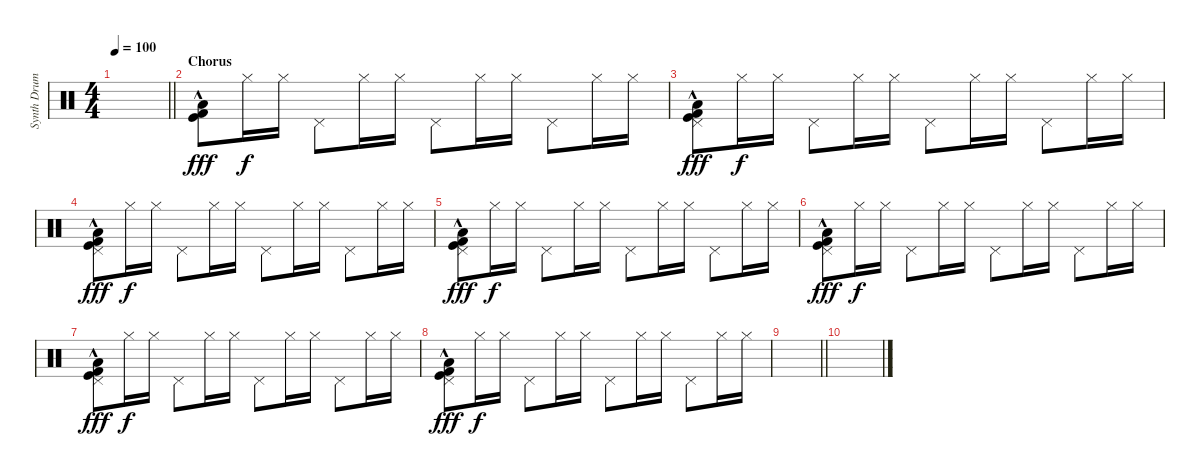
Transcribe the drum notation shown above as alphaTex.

\track ("Synth Drums" "Synth Drum") {instrument percussion}
\staff {score}
\articulation defaults
\ts (4 4)
\tempo 100
\clef neutral
\barLineRight lightlight
\ks c
|
\section ("" "Chorus")
("Low Floor Tom (hit)"{hac} "Kick (hit) 2"{hac} "Kick (hit)"{hac}).8{dy fff} "Hi-Hat (closed)".16{dy f} "Hi-Hat (closed)".16 "Pedal Hi-Hat (hit)".8 "Hi-Hat (closed)".16 "Hi-Hat (closed)".16 "Pedal Hi-Hat (hit)".8 "Hi-Hat (closed)".16 "Hi-Hat (closed)".16 "Pedal Hi-Hat (hit)".8 "Hi-Hat (closed)".16 "Hi-Hat (closed)".16 |
("Pedal Hi-Hat (hit)" "Low Floor Tom (hit)"{hac} "Kick (hit) 2"{hac} "Kick (hit)"{hac}).8{dy fff} "Hi-Hat (closed)".16{dy f} "Hi-Hat (closed)".16 "Pedal Hi-Hat (hit)".8 "Hi-Hat (closed)".16 "Hi-Hat (closed)".16 "Pedal Hi-Hat (hit)".8 "Hi-Hat (closed)".16 "Hi-Hat (closed)".16 "Pedal Hi-Hat (hit)".8 "Hi-Hat (closed)".16 "Hi-Hat (closed)".16 |
("Pedal Hi-Hat (hit)" "Low Floor Tom (hit)"{hac} "Kick (hit) 2"{hac} "Kick (hit)"{hac}).8{dy fff} "Hi-Hat (closed)".16{dy f} "Hi-Hat (closed)".16 "Pedal Hi-Hat (hit)".8 "Hi-Hat (closed)".16 "Hi-Hat (closed)".16 "Pedal Hi-Hat (hit)".8 "Hi-Hat (closed)".16 "Hi-Hat (closed)".16 "Pedal Hi-Hat (hit)".8 "Hi-Hat (closed)".16 "Hi-Hat (closed)".16 |
("Pedal Hi-Hat (hit)" "Low Floor Tom (hit)"{hac} "Kick (hit) 2"{hac} "Kick (hit)"{hac}).8{dy fff} "Hi-Hat (closed)".16{dy f} "Hi-Hat (closed)".16 "Pedal Hi-Hat (hit)".8 "Hi-Hat (closed)".16 "Hi-Hat (closed)".16 "Pedal Hi-Hat (hit)".8 "Hi-Hat (closed)".16 "Hi-Hat (closed)".16 "Pedal Hi-Hat (hit)".8 "Hi-Hat (closed)".16 "Hi-Hat (closed)".16 |
("Pedal Hi-Hat (hit)" "Low Floor Tom (hit)"{hac} "Kick (hit) 2"{hac} "Kick (hit)"{hac}).8{dy fff} "Hi-Hat (closed)".16{dy f} "Hi-Hat (closed)".16 "Pedal Hi-Hat (hit)".8 "Hi-Hat (closed)".16 "Hi-Hat (closed)".16 "Pedal Hi-Hat (hit)".8 "Hi-Hat (closed)".16 "Hi-Hat (closed)".16 "Pedal Hi-Hat (hit)".8 "Hi-Hat (closed)".16 "Hi-Hat (closed)".16 |
("Pedal Hi-Hat (hit)" "Low Floor Tom (hit)"{hac} "Kick (hit) 2"{hac} "Kick (hit)"{hac}).8{dy fff} "Hi-Hat (closed)".16{dy f} "Hi-Hat (closed)".16 "Pedal Hi-Hat (hit)".8 "Hi-Hat (closed)".16 "Hi-Hat (closed)".16 "Pedal Hi-Hat (hit)".8 "Hi-Hat (closed)".16 "Hi-Hat (closed)".16 "Pedal Hi-Hat (hit)".8 "Hi-Hat (closed)".16 "Hi-Hat (closed)".16 |
("Pedal Hi-Hat (hit)" "Low Floor Tom (hit)"{hac} "Kick (hit) 2"{hac} "Kick (hit)"{hac}).8{dy fff} "Hi-Hat (closed)".16{dy f} "Hi-Hat (closed)".16 "Pedal Hi-Hat (hit)".8 "Hi-Hat (closed)".16 "Hi-Hat (closed)".16 "Pedal Hi-Hat (hit)".8 "Hi-Hat (closed)".16 "Hi-Hat (closed)".16 "Pedal Hi-Hat (hit)".8 "Hi-Hat (closed)".16 "Hi-Hat (closed)".16 |
\barLineRight lightlight
|
\section ("" "")
